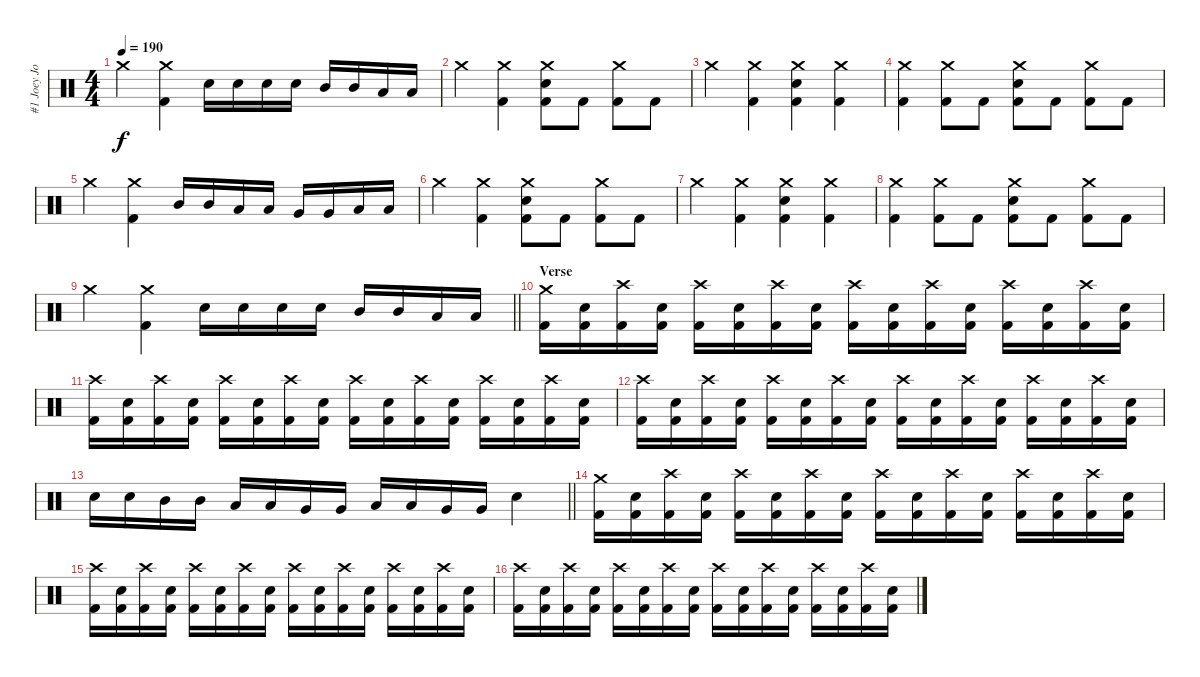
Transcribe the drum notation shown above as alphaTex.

\track ("#1 Joey Jordison" "#1 Joey Jo") {instrument percussion}
\staff {score}
\articulation defaults
\ts (4 4)
\tempo 190
\clef neutral
\ks c "Crash medium (hit)".4{dy f}
("Crash medium (hit)" "Kick (hit) 2").4 "Electric Snare (hit)".16 "Electric Snare (hit)".16 "Electric Snare (hit)".16 "Electric Snare (hit)".16 "Mid Tom (hit)".16 "Mid Tom (hit)".16 "Low Tom (hit)".16 "Low Tom (hit)".16 |
"Crash medium (hit)".4 ("Crash medium (hit)" "Kick (hit) 2").4 ("Crash medium (hit)" "Electric Snare (hit)" "Kick (hit) 2").8 "Kick (hit) 2".8 ("Crash medium (hit)" "Kick (hit) 2").8 "Kick (hit) 2".8 |
"Crash medium (hit)".4 ("Crash medium (hit)" "Kick (hit) 2").4 ("Crash medium (hit)" "Electric Snare (hit)" "Kick (hit) 2").4 ("Crash medium (hit)" "Kick (hit) 2").4 |
("Crash medium (hit)" "Kick (hit) 2").4 ("Crash medium (hit)" "Kick (hit) 2").8 "Kick (hit) 2".8 ("Crash medium (hit)" "Electric Snare (hit)" "Kick (hit) 2").8 "Kick (hit) 2".8 ("Crash medium (hit)" "Kick (hit) 2").8 "Kick (hit) 2".8 |
"Crash medium (hit)".4 ("Crash medium (hit)" "Kick (hit) 2").4 "Mid Tom (hit)".16 "Mid Tom (hit)".16 "Low Tom (hit)".16 "Low Tom (hit)".16 "Very Low Tom (hit)".16 "Very Low Tom (hit)".16 "Low Floor Tom (hit)".16 "Low Floor Tom (hit)".16 |
"Crash medium (hit)".4 ("Crash medium (hit)" "Kick (hit) 2").4 ("Crash medium (hit)" "Electric Snare (hit)" "Kick (hit) 2").8 "Kick (hit) 2".8 ("Crash medium (hit)" "Kick (hit) 2").8 "Kick (hit) 2".8 |
"Crash medium (hit)".4 ("Crash medium (hit)" "Kick (hit) 2").4 ("Crash medium (hit)" "Electric Snare (hit)" "Kick (hit) 2").4 ("Crash medium (hit)" "Kick (hit) 2").4 |
("Crash medium (hit)" "Kick (hit) 2").4 ("Crash medium (hit)" "Kick (hit) 2").8 "Kick (hit) 2".8 ("Crash medium (hit)" "Electric Snare (hit)" "Kick (hit) 2").8 "Kick (hit) 2".8 ("Crash medium (hit)" "Kick (hit) 2").8 "Kick (hit) 2".8 |
\barLineRight lightlight "Crash medium (hit)".4
("Crash medium (hit)" "Kick (hit) 2").4 "Electric Snare (hit)".16 "Electric Snare (hit)".16 "Electric Snare (hit)".16 "Electric Snare (hit)".16 "Mid Tom (hit)".16 "Mid Tom (hit)".16 "Low Tom (hit)".16 "Low Tom (hit)".16 |
\section ("" "Verse")
("Crash medium (hit)" "Kick (hit) 2").16 ("Electric Snare (hit)" "Kick (hit) 2").16 ("Crash high (hit)" "Kick (hit) 2").16 ("Electric Snare (hit)" "Kick (hit) 2").16 ("Crash high (hit)" "Kick (hit) 2").16 ("Electric Snare (hit)" "Kick (hit) 2").16 ("Crash high (hit)" "Kick (hit) 2").16 ("Electric Snare (hit)" "Kick (hit) 2").16 ("Crash high (hit)" "Kick (hit) 2").16 ("Electric Snare (hit)" "Kick (hit) 2").16 ("Crash high (hit)" "Kick (hit) 2").16 ("Electric Snare (hit)" "Kick (hit) 2").16 ("Crash high (hit)" "Kick (hit) 2").16 ("Electric Snare (hit)" "Kick (hit) 2").16 ("Crash high (hit)" "Kick (hit) 2").16 ("Electric Snare (hit)" "Kick (hit) 2").16 |
("Crash high (hit)" "Kick (hit) 2").16 ("Electric Snare (hit)" "Kick (hit) 2").16 ("Crash high (hit)" "Kick (hit) 2").16 ("Electric Snare (hit)" "Kick (hit) 2").16 ("Crash high (hit)" "Kick (hit) 2").16 ("Electric Snare (hit)" "Kick (hit) 2").16 ("Crash high (hit)" "Kick (hit) 2").16 ("Electric Snare (hit)" "Kick (hit) 2").16 ("Crash high (hit)" "Kick (hit) 2").16 ("Electric Snare (hit)" "Kick (hit) 2").16 ("Crash high (hit)" "Kick (hit) 2").16 ("Electric Snare (hit)" "Kick (hit) 2").16 ("Crash high (hit)" "Kick (hit) 2").16 ("Electric Snare (hit)" "Kick (hit) 2").16 ("Crash high (hit)" "Kick (hit) 2").16 ("Electric Snare (hit)" "Kick (hit) 2").16 |
("Crash high (hit)" "Kick (hit) 2").16 ("Electric Snare (hit)" "Kick (hit) 2").16 ("Crash high (hit)" "Kick (hit) 2").16 ("Electric Snare (hit)" "Kick (hit) 2").16 ("Crash high (hit)" "Kick (hit) 2").16 ("Electric Snare (hit)" "Kick (hit) 2").16 ("Crash high (hit)" "Kick (hit) 2").16 ("Electric Snare (hit)" "Kick (hit) 2").16 ("Crash high (hit)" "Kick (hit) 2").16 ("Electric Snare (hit)" "Kick (hit) 2").16 ("Crash high (hit)" "Kick (hit) 2").16 ("Electric Snare (hit)" "Kick (hit) 2").16 ("Crash high (hit)" "Kick (hit) 2").16 ("Electric Snare (hit)" "Kick (hit) 2").16 ("Crash high (hit)" "Kick (hit) 2").16 ("Electric Snare (hit)" "Kick (hit) 2").16 |
\barLineRight lightlight "Electric Snare (hit)".16 "Electric Snare (hit)".16 "Mid Tom (hit)".16 "Mid Tom (hit)".16 "Low Tom (hit)".16 "Low Tom (hit)".16 "Very Low Tom (hit)".16 "Very Low Tom (hit)".16 "Low Floor Tom (hit)".16 "Low Floor Tom (hit)".16 "Very Low Tom (hit)".16 "Very Low Tom (hit)".16 "Electric Snare (hit)".4
|
("Crash medium (hit)" "Kick (hit) 2").16 ("Electric Snare (hit)" "Kick (hit) 2").16 ("Crash high (hit)" "Kick (hit) 2").16 ("Electric Snare (hit)" "Kick (hit) 2").16 ("Crash high (hit)" "Kick (hit) 2").16 ("Electric Snare (hit)" "Kick (hit) 2").16 ("Crash high (hit)" "Kick (hit) 2").16 ("Electric Snare (hit)" "Kick (hit) 2").16 ("Crash high (hit)" "Kick (hit) 2").16 ("Electric Snare (hit)" "Kick (hit) 2").16 ("Crash high (hit)" "Kick (hit) 2").16 ("Electric Snare (hit)" "Kick (hit) 2").16 ("Crash high (hit)" "Kick (hit) 2").16 ("Electric Snare (hit)" "Kick (hit) 2").16 ("Crash high (hit)" "Kick (hit) 2").16 ("Electric Snare (hit)" "Kick (hit) 2").16 |
("Crash high (hit)" "Kick (hit) 2").16 ("Electric Snare (hit)" "Kick (hit) 2").16 ("Crash high (hit)" "Kick (hit) 2").16 ("Electric Snare (hit)" "Kick (hit) 2").16 ("Crash high (hit)" "Kick (hit) 2").16 ("Electric Snare (hit)" "Kick (hit) 2").16 ("Crash high (hit)" "Kick (hit) 2").16 ("Electric Snare (hit)" "Kick (hit) 2").16 ("Crash high (hit)" "Kick (hit) 2").16 ("Electric Snare (hit)" "Kick (hit) 2").16 ("Crash high (hit)" "Kick (hit) 2").16 ("Electric Snare (hit)" "Kick (hit) 2").16 ("Crash high (hit)" "Kick (hit) 2").16 ("Electric Snare (hit)" "Kick (hit) 2").16 ("Crash high (hit)" "Kick (hit) 2").16 ("Electric Snare (hit)" "Kick (hit) 2").16 |
("Crash high (hit)" "Kick (hit) 2").16 ("Electric Snare (hit)" "Kick (hit) 2").16 ("Crash high (hit)" "Kick (hit) 2").16 ("Electric Snare (hit)" "Kick (hit) 2").16 ("Crash high (hit)" "Kick (hit) 2").16 ("Electric Snare (hit)" "Kick (hit) 2").16 ("Crash high (hit)" "Kick (hit) 2").16 ("Electric Snare (hit)" "Kick (hit) 2").16 ("Crash high (hit)" "Kick (hit) 2").16 ("Electric Snare (hit)" "Kick (hit) 2").16 ("Crash high (hit)" "Kick (hit) 2").16 ("Electric Snare (hit)" "Kick (hit) 2").16 ("Crash high (hit)" "Kick (hit) 2").16 ("Electric Snare (hit)" "Kick (hit) 2").16 ("Crash high (hit)" "Kick (hit) 2").16 ("Electric Snare (hit)" "Kick (hit) 2").16
